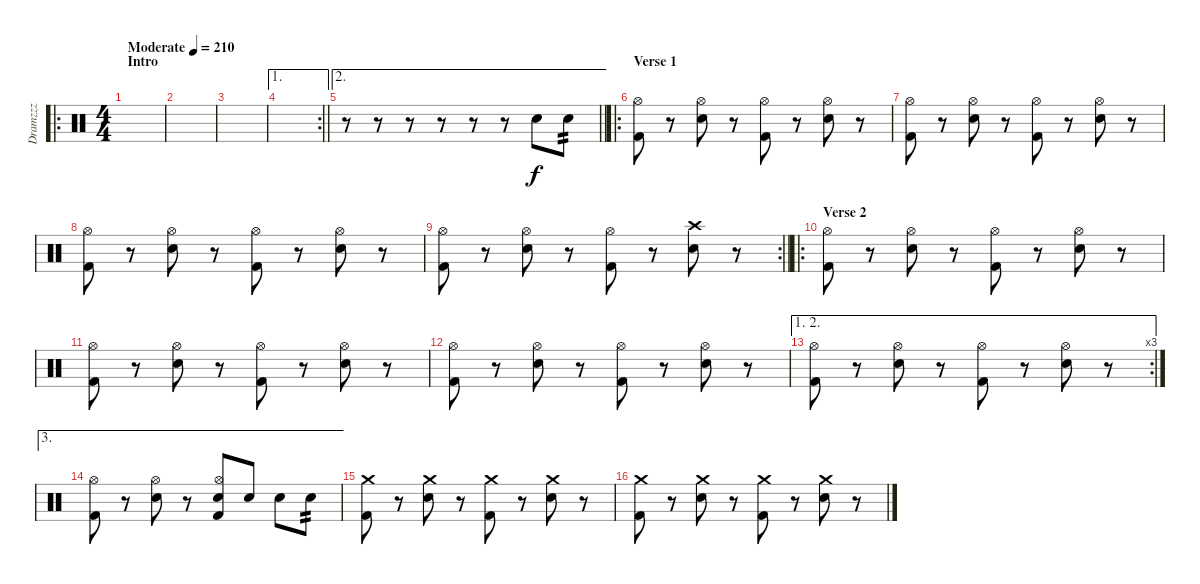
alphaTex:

\track ("Dramzzz" "Dramzzz") {instrument percussion}
\staff {score}
\articulation defaults
\ro
\ts (4 4)
\section ("" "Intro")
\tempo (210 "Moderate")
\clef neutral
\ks c
|
|
|
\ae 1
\rc 2
\barLineRight lightlight
|
\ae 2
\barLineRight lightlight
r.8 r.8 r.8 r.8 r.8 r.8 "Electric Snare (hit)".8 "Electric Snare (hit)".8{tp 2} |
\ro
\section ("" "Verse 1")
("Hi-Hat (open)" "Kick (hit) 2").8 r.8 ("Hi-Hat (open)" "Electric Snare (hit)").8 r.8 ("Hi-Hat (open)" "Kick (hit) 2").8 r.8 ("Hi-Hat (open)" "Electric Snare (hit)").8 r.8 |
("Hi-Hat (open)" "Kick (hit) 2").8 r.8 ("Hi-Hat (open)" "Electric Snare (hit)").8 r.8 ("Hi-Hat (open)" "Kick (hit) 2").8 r.8 ("Hi-Hat (open)" "Electric Snare (hit)").8 r.8 |
("Hi-Hat (open)" "Kick (hit) 2").8 r.8 ("Hi-Hat (open)" "Electric Snare (hit)").8 r.8 ("Hi-Hat (open)" "Kick (hit) 2").8 r.8 ("Hi-Hat (open)" "Electric Snare (hit)").8 r.8 |
\rc 2
\barLineRight lightlight
("Hi-Hat (open)" "Kick (hit) 2").8 r.8 ("Hi-Hat (open)" "Electric Snare (hit)").8 r.8 ("Hi-Hat (open)" "Kick (hit) 2").8 r.8 ("Crash high (hit)" "Electric Snare (hit)").8 r.8 |
\ro
\section ("" "Verse 2")
("Hi-Hat (open)" "Kick (hit) 2").8 r.8 ("Hi-Hat (open)" "Electric Snare (hit)").8 r.8 ("Hi-Hat (open)" "Kick (hit) 2").8 r.8 ("Hi-Hat (open)" "Electric Snare (hit)").8 r.8 |
("Hi-Hat (open)" "Kick (hit) 2").8 r.8 ("Hi-Hat (open)" "Electric Snare (hit)").8 r.8 ("Hi-Hat (open)" "Kick (hit) 2").8 r.8 ("Hi-Hat (open)" "Electric Snare (hit)").8 r.8 |
("Hi-Hat (open)" "Kick (hit) 2").8 r.8 ("Hi-Hat (open)" "Electric Snare (hit)").8 r.8 ("Hi-Hat (open)" "Kick (hit) 2").8 r.8 ("Hi-Hat (open)" "Electric Snare (hit)").8 r.8 |
\ae (1 2)
\rc 3
("Hi-Hat (open)" "Kick (hit) 2").8 r.8 ("Hi-Hat (open)" "Electric Snare (hit)").8 r.8 ("Hi-Hat (open)" "Kick (hit) 2").8 r.8 ("Hi-Hat (open)" "Electric Snare (hit)").8 r.8 |
\ae 3
("Hi-Hat (open)" "Kick (hit) 2").8 r.8 ("Hi-Hat (open)" "Electric Snare (hit)").8 r.8 ("Hi-Hat (open)" "Electric Snare (hit)" "Kick (hit) 2").8 "Electric Snare (hit)".8 "Electric Snare (hit)".8 "Electric Snare (hit)".8{tp 2} |
("Crash medium (hit)" "Kick (hit) 2").8 r.8 ("Crash medium (hit)" "Electric Snare (hit)").8 r.8 ("Crash medium (hit)" "Kick (hit) 2").8 r.8 ("Crash medium (hit)" "Electric Snare (hit)").8 r.8 |
("Crash medium (hit)" "Kick (hit) 2").8 r.8 ("Crash medium (hit)" "Electric Snare (hit)").8 r.8 ("Crash medium (hit)" "Kick (hit) 2").8 r.8 ("Crash medium (hit)" "Electric Snare (hit)").8 r.8
